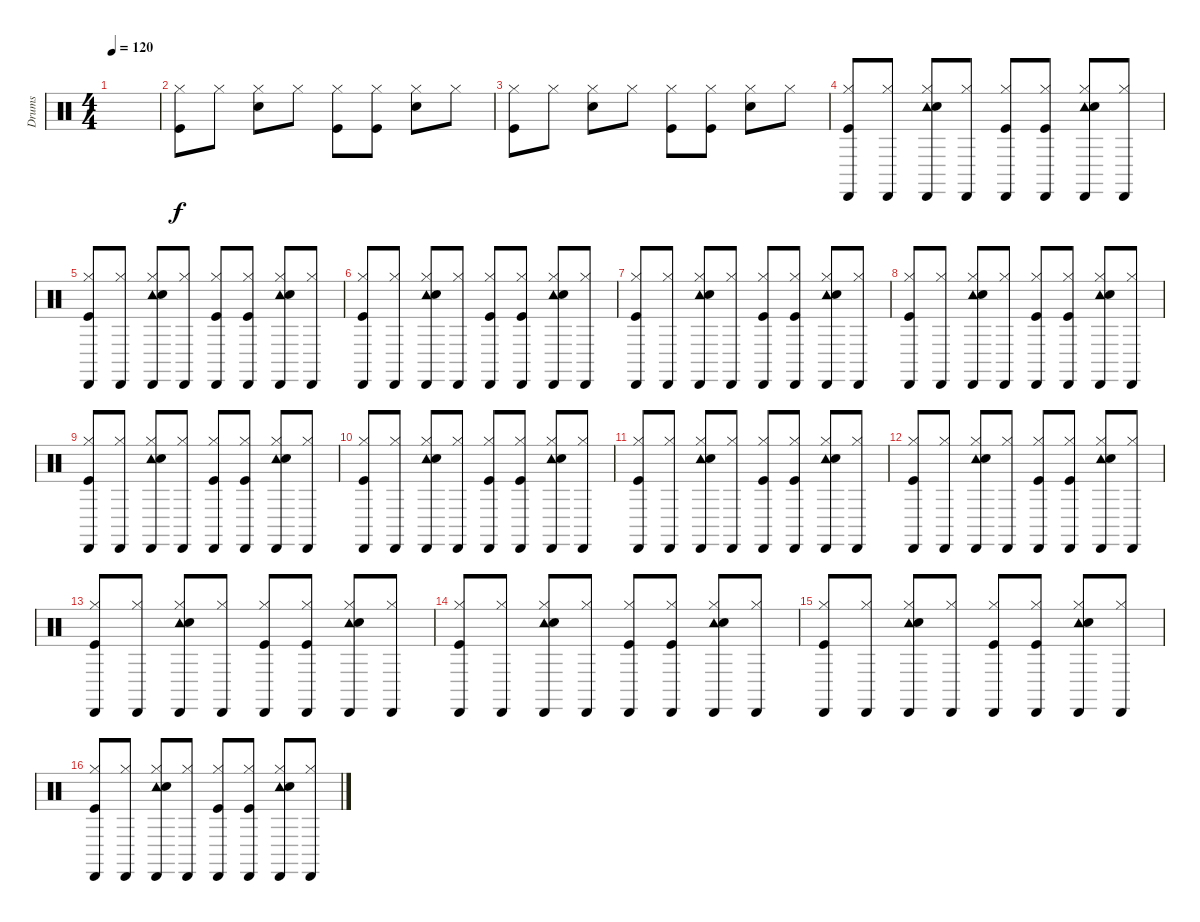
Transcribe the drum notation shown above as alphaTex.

\track ("Drums" "Drums") {instrument percussion}
\staff {score}
\articulation defaults
\ts (4 4)
\tempo 120
\clef neutral
\ks c
|
("Hi-Hat (closed)" "Kick (hit)").8{volume 5} "Hi-Hat (closed)".8 ("Hi-Hat (closed)" "Snare (hit) 2").8 "Hi-Hat (closed)".8 ("Hi-Hat (closed)" "Kick (hit)").8 ("Hi-Hat (closed)" "Kick (hit)").8 ("Hi-Hat (closed)" "Snare (hit) 2").8 "Hi-Hat (closed)".8 |
("Hi-Hat (closed)" "Kick (hit)").8{volume 10} "Hi-Hat (closed)".8 ("Hi-Hat (closed)" "Snare (hit) 2").8 "Hi-Hat (closed)".8 ("Hi-Hat (closed)" "Kick (hit)").8 ("Hi-Hat (closed)" "Kick (hit)").8 ("Hi-Hat (closed)" "Snare (hit) 2").8 "Hi-Hat (closed)".8 |
("Hi-Hat (closed)" "Cabasa (hit)" "Kick (hit)").8 ("Hi-Hat (closed)" "Cabasa (hit)").8 ("Hi-Hat (closed)" "Tambourine (hit)" "Cabasa (hit)" "Snare (hit) 2").8 ("Hi-Hat (closed)" "Cabasa (hit)").8 ("Hi-Hat (closed)" "Cabasa (hit)" "Kick (hit)").8 ("Hi-Hat (closed)" "Cabasa (hit)" "Kick (hit)").8 ("Hi-Hat (closed)" "Tambourine (hit)" "Cabasa (hit)" "Snare (hit) 2").8 ("Hi-Hat (closed)" "Cabasa (hit)").8 |
("Hi-Hat (closed)" "Cabasa (hit)" "Kick (hit)").8 ("Hi-Hat (closed)" "Cabasa (hit)").8 ("Hi-Hat (closed)" "Tambourine (hit)" "Cabasa (hit)" "Snare (hit) 2").8 ("Hi-Hat (closed)" "Cabasa (hit)").8 ("Hi-Hat (closed)" "Cabasa (hit)" "Kick (hit)").8 ("Hi-Hat (closed)" "Cabasa (hit)" "Kick (hit)").8 ("Hi-Hat (closed)" "Tambourine (hit)" "Cabasa (hit)" "Snare (hit) 2").8 ("Hi-Hat (closed)" "Cabasa (hit)").8 |
("Hi-Hat (closed)" "Cabasa (hit)" "Kick (hit)").8 ("Hi-Hat (closed)" "Cabasa (hit)").8 ("Hi-Hat (closed)" "Tambourine (hit)" "Cabasa (hit)" "Snare (hit) 2").8 ("Hi-Hat (closed)" "Cabasa (hit)").8 ("Hi-Hat (closed)" "Cabasa (hit)" "Kick (hit)").8 ("Hi-Hat (closed)" "Cabasa (hit)" "Kick (hit)").8 ("Hi-Hat (closed)" "Tambourine (hit)" "Cabasa (hit)" "Snare (hit) 2").8 ("Hi-Hat (closed)" "Cabasa (hit)").8 |
("Hi-Hat (closed)" "Cabasa (hit)" "Kick (hit)").8 ("Hi-Hat (closed)" "Cabasa (hit)").8 ("Hi-Hat (closed)" "Tambourine (hit)" "Cabasa (hit)" "Snare (hit) 2").8 ("Hi-Hat (closed)" "Cabasa (hit)").8 ("Hi-Hat (closed)" "Cabasa (hit)" "Kick (hit)").8 ("Hi-Hat (closed)" "Cabasa (hit)" "Kick (hit)").8 ("Hi-Hat (closed)" "Tambourine (hit)" "Cabasa (hit)" "Snare (hit) 2").8 ("Hi-Hat (closed)" "Cabasa (hit)").8 |
("Hi-Hat (closed)" "Cabasa (hit)" "Kick (hit)").8 ("Hi-Hat (closed)" "Cabasa (hit)").8 ("Hi-Hat (closed)" "Tambourine (hit)" "Cabasa (hit)" "Snare (hit) 2").8 ("Hi-Hat (closed)" "Cabasa (hit)").8 ("Hi-Hat (closed)" "Cabasa (hit)" "Kick (hit)").8 ("Hi-Hat (closed)" "Cabasa (hit)" "Kick (hit)").8 ("Hi-Hat (closed)" "Tambourine (hit)" "Cabasa (hit)" "Snare (hit) 2").8 ("Hi-Hat (closed)" "Cabasa (hit)").8 |
("Hi-Hat (closed)" "Cabasa (hit)" "Kick (hit)").8 ("Hi-Hat (closed)" "Cabasa (hit)").8 ("Hi-Hat (closed)" "Tambourine (hit)" "Cabasa (hit)" "Snare (hit) 2").8 ("Hi-Hat (closed)" "Cabasa (hit)").8 ("Hi-Hat (closed)" "Cabasa (hit)" "Kick (hit)").8 ("Hi-Hat (closed)" "Cabasa (hit)" "Kick (hit)").8 ("Hi-Hat (closed)" "Tambourine (hit)" "Cabasa (hit)" "Snare (hit) 2").8 ("Hi-Hat (closed)" "Cabasa (hit)").8 |
("Hi-Hat (closed)" "Cabasa (hit)" "Kick (hit)").8 ("Hi-Hat (closed)" "Cabasa (hit)").8 ("Hi-Hat (closed)" "Tambourine (hit)" "Cabasa (hit)" "Snare (hit) 2").8 ("Hi-Hat (closed)" "Cabasa (hit)").8 ("Hi-Hat (closed)" "Cabasa (hit)" "Kick (hit)").8 ("Hi-Hat (closed)" "Cabasa (hit)" "Kick (hit)").8 ("Hi-Hat (closed)" "Tambourine (hit)" "Cabasa (hit)" "Snare (hit) 2").8 ("Hi-Hat (closed)" "Cabasa (hit)").8 |
("Hi-Hat (closed)" "Cabasa (hit)" "Kick (hit)").8 ("Hi-Hat (closed)" "Cabasa (hit)").8 ("Hi-Hat (closed)" "Tambourine (hit)" "Cabasa (hit)" "Snare (hit) 2").8 ("Hi-Hat (closed)" "Cabasa (hit)").8 ("Hi-Hat (closed)" "Cabasa (hit)" "Kick (hit)").8 ("Hi-Hat (closed)" "Cabasa (hit)" "Kick (hit)").8 ("Hi-Hat (closed)" "Tambourine (hit)" "Cabasa (hit)" "Snare (hit) 2").8 ("Hi-Hat (closed)" "Cabasa (hit)").8 |
("Hi-Hat (closed)" "Cabasa (hit)" "Kick (hit)").8 ("Hi-Hat (closed)" "Cabasa (hit)").8 ("Hi-Hat (closed)" "Tambourine (hit)" "Cabasa (hit)" "Snare (hit) 2").8 ("Hi-Hat (closed)" "Cabasa (hit)").8 ("Hi-Hat (closed)" "Cabasa (hit)" "Kick (hit)").8 ("Hi-Hat (closed)" "Cabasa (hit)" "Kick (hit)").8 ("Hi-Hat (closed)" "Tambourine (hit)" "Cabasa (hit)" "Snare (hit) 2").8 ("Hi-Hat (closed)" "Cabasa (hit)").8 |
("Hi-Hat (closed)" "Cabasa (hit)" "Kick (hit)").8 ("Hi-Hat (closed)" "Cabasa (hit)").8 ("Hi-Hat (closed)" "Tambourine (hit)" "Cabasa (hit)" "Snare (hit) 2").8 ("Hi-Hat (closed)" "Cabasa (hit)").8 ("Hi-Hat (closed)" "Cabasa (hit)" "Kick (hit)").8 ("Hi-Hat (closed)" "Cabasa (hit)" "Kick (hit)").8 ("Hi-Hat (closed)" "Tambourine (hit)" "Cabasa (hit)" "Snare (hit) 2").8 ("Hi-Hat (closed)" "Cabasa (hit)").8 |
("Hi-Hat (closed)" "Cabasa (hit)" "Kick (hit)").8 ("Hi-Hat (closed)" "Cabasa (hit)").8 ("Hi-Hat (closed)" "Tambourine (hit)" "Cabasa (hit)" "Snare (hit) 2").8 ("Hi-Hat (closed)" "Cabasa (hit)").8 ("Hi-Hat (closed)" "Cabasa (hit)" "Kick (hit)").8 ("Hi-Hat (closed)" "Cabasa (hit)" "Kick (hit)").8 ("Hi-Hat (closed)" "Tambourine (hit)" "Cabasa (hit)" "Snare (hit) 2").8 ("Hi-Hat (closed)" "Cabasa (hit)").8 |
("Hi-Hat (closed)" "Cabasa (hit)" "Kick (hit)").8 ("Hi-Hat (closed)" "Cabasa (hit)").8 ("Hi-Hat (closed)" "Tambourine (hit)" "Cabasa (hit)" "Snare (hit) 2").8 ("Hi-Hat (closed)" "Cabasa (hit)").8 ("Hi-Hat (closed)" "Cabasa (hit)" "Kick (hit)").8 ("Hi-Hat (closed)" "Cabasa (hit)" "Kick (hit)").8 ("Hi-Hat (closed)" "Tambourine (hit)" "Cabasa (hit)" "Snare (hit) 2").8 ("Hi-Hat (closed)" "Cabasa (hit)").8 |
("Hi-Hat (closed)" "Cabasa (hit)" "Kick (hit)").8 ("Hi-Hat (closed)" "Cabasa (hit)").8 ("Hi-Hat (closed)" "Tambourine (hit)" "Cabasa (hit)" "Snare (hit) 2").8 ("Hi-Hat (closed)" "Cabasa (hit)").8 ("Hi-Hat (closed)" "Cabasa (hit)" "Kick (hit)").8 ("Hi-Hat (closed)" "Cabasa (hit)" "Kick (hit)").8 ("Hi-Hat (closed)" "Tambourine (hit)" "Cabasa (hit)" "Snare (hit) 2").8 ("Hi-Hat (closed)" "Cabasa (hit)").8
